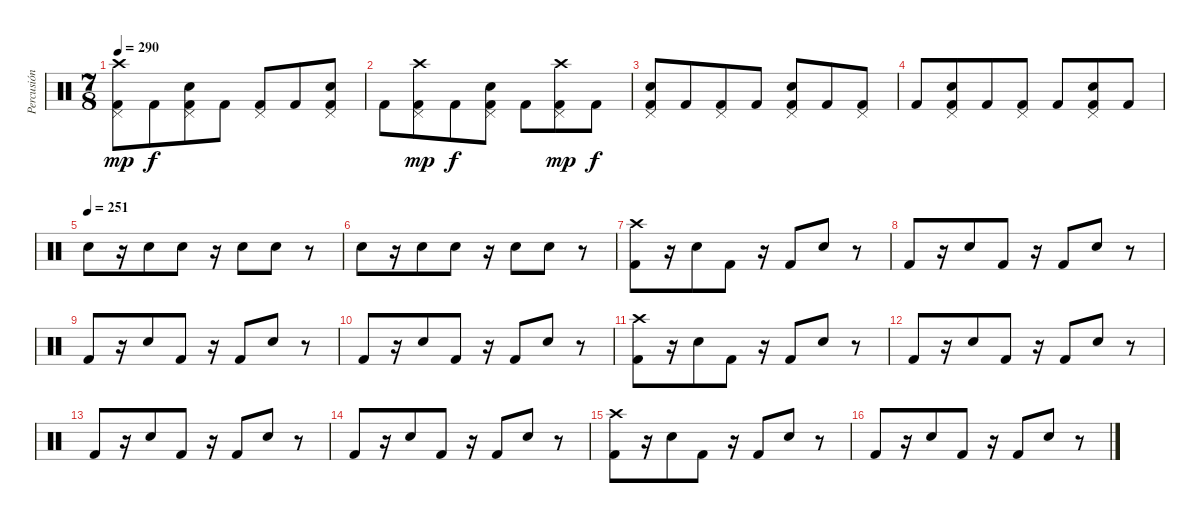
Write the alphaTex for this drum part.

\track ("Percusión" "Percusión") {instrument percussion}
\staff {score}
\articulation defaults
\ts (7 8)
\tempo 290
\clef neutral
\ks c
("Crash high (hit)" "Pedal Hi-Hat (hit)" "Kick (hit) 2").8{dy mp} "Kick (hit) 2".8{dy f} ("Pedal Hi-Hat (hit)" "Snare (hit) 2" "Kick (hit) 2").8 "Kick (hit) 2".8 ("Pedal Hi-Hat (hit)" "Kick (hit) 2").8 "Kick (hit) 2".8 ("Pedal Hi-Hat (hit)" "Snare (hit) 2" "Kick (hit) 2").8 |
"Kick (hit) 2".8 ("Crash high (hit)" "Pedal Hi-Hat (hit)" "Kick (hit) 2").8{dy mp} "Kick (hit) 2".8{dy f} ("Pedal Hi-Hat (hit)" "Snare (hit) 2" "Kick (hit) 2").8 "Kick (hit) 2".8 ("Crash high (hit)" "Pedal Hi-Hat (hit)" "Kick (hit) 2").8{dy mp} "Kick (hit) 2".8{dy f} |
("Pedal Hi-Hat (hit)" "Snare (hit) 2" "Kick (hit) 2").8 "Kick (hit) 2".8 ("Pedal Hi-Hat (hit)" "Kick (hit) 2").8 "Kick (hit) 2".8 ("Pedal Hi-Hat (hit)" "Snare (hit) 2" "Kick (hit) 2").8 "Kick (hit) 2".8 ("Pedal Hi-Hat (hit)" "Kick (hit) 2").8 |
"Kick (hit) 2".8 ("Pedal Hi-Hat (hit)" "Snare (hit) 2" "Kick (hit) 2").8 "Kick (hit) 2".8 ("Pedal Hi-Hat (hit)" "Kick (hit) 2").8 "Kick (hit) 2".8 ("Pedal Hi-Hat (hit)" "Snare (hit) 2" "Kick (hit) 2").8 "Kick (hit) 2".8 |
\tempo (251)
"Snare (hit) 2".8 r.16 "Snare (hit) 2".8 "Snare (hit) 2".8 r.16 "Snare (hit) 2".8 "Snare (hit) 2".8 r.8 |
"Snare (hit) 2".8 r.16 "Snare (hit) 2".8 "Snare (hit) 2".8 r.16 "Snare (hit) 2".8 "Snare (hit) 2".8 r.8 |
("Crash high (hit)" "Kick (hit) 2").8 r.16 "Snare (hit) 2".8 "Kick (hit) 2".8 r.16 "Kick (hit) 2".8 "Snare (hit) 2".8 r.8 |
"Kick (hit) 2".8 r.16 "Snare (hit) 2".8 "Kick (hit) 2".8 r.16 "Kick (hit) 2".8 "Snare (hit) 2".8 r.8 |
"Kick (hit) 2".8 r.16 "Snare (hit) 2".8 "Kick (hit) 2".8 r.16 "Kick (hit) 2".8 "Snare (hit) 2".8 r.8 |
"Kick (hit) 2".8 r.16 "Snare (hit) 2".8 "Kick (hit) 2".8 r.16 "Kick (hit) 2".8 "Snare (hit) 2".8 r.8 |
("Crash high (hit)" "Kick (hit) 2").8 r.16 "Snare (hit) 2".8 "Kick (hit) 2".8 r.16 "Kick (hit) 2".8 "Snare (hit) 2".8 r.8 |
"Kick (hit) 2".8 r.16 "Snare (hit) 2".8 "Kick (hit) 2".8 r.16 "Kick (hit) 2".8 "Snare (hit) 2".8 r.8 |
"Kick (hit) 2".8 r.16 "Snare (hit) 2".8 "Kick (hit) 2".8 r.16 "Kick (hit) 2".8 "Snare (hit) 2".8 r.8 |
"Kick (hit) 2".8 r.16 "Snare (hit) 2".8 "Kick (hit) 2".8 r.16 "Kick (hit) 2".8 "Snare (hit) 2".8 r.8 |
("Crash high (hit)" "Kick (hit) 2").8 r.16 "Snare (hit) 2".8 "Kick (hit) 2".8 r.16 "Kick (hit) 2".8 "Snare (hit) 2".8 r.8 |
"Kick (hit) 2".8 r.16 "Snare (hit) 2".8 "Kick (hit) 2".8 r.16 "Kick (hit) 2".8 "Snare (hit) 2".8 r.8
